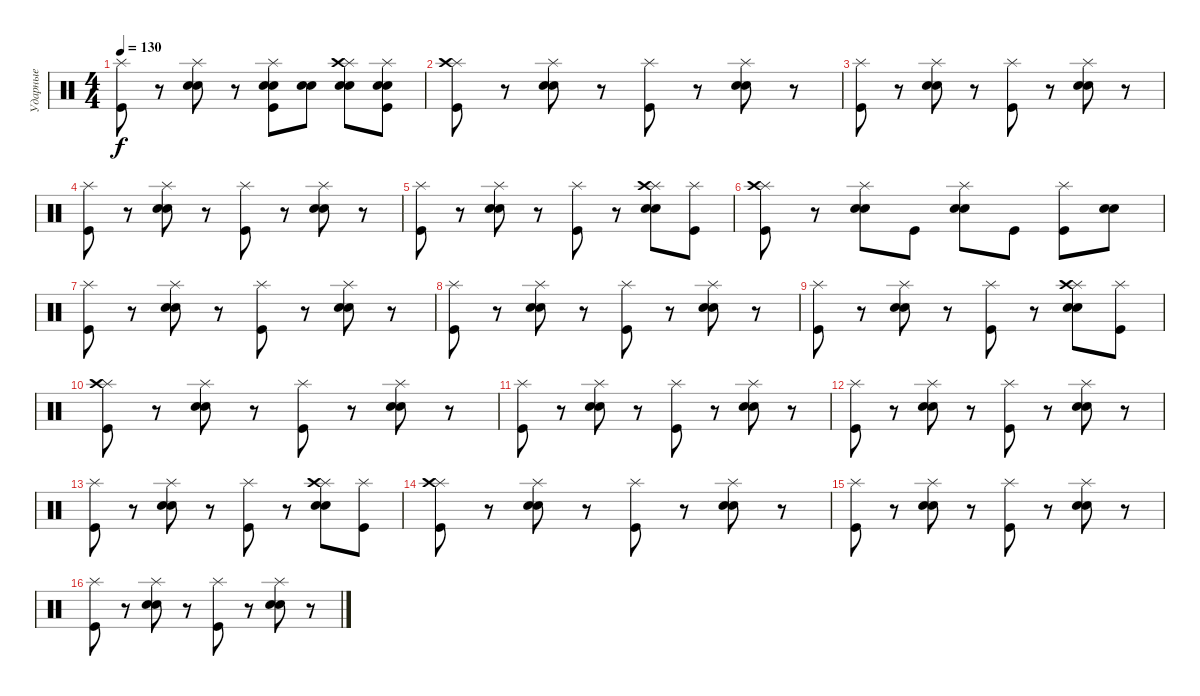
\track ("Ударные" "Ударные") {instrument percussion}
\staff {score}
\articulation defaults
\ts (4 4)
\tempo 130
\clef neutral
\ks c
("Splash (hit)" "Kick (hit)").8{dy f} r.8 ("Splash (hit)" "Electric Snare (hit)" "Electric Snare (hit)").8 r.8 ("Splash (hit)" "Electric Snare (hit)" "Electric Snare (hit)" "Kick (hit)").8 ("Snare (hit) 2" "Snare (hit) 2").8 ("Splash (hit)" "Crash high (hit)" "Electric Snare (hit)" "Electric Snare (hit)").8 ("Splash (hit)" "Snare (hit) 2" "Snare (hit) 2" "Kick (hit)").8 |
("Splash (hit)" "Crash high (hit)" "Kick (hit)").8 r.8 ("Splash (hit)" "Electric Snare (hit)" "Electric Snare (hit)").8 r.8 ("Splash (hit)" "Kick (hit)").8 r.8 ("Splash (hit)" "Electric Snare (hit)" "Electric Snare (hit)").8 r.8 |
("Splash (hit)" "Kick (hit)").8 r.8 ("Splash (hit)" "Electric Snare (hit)" "Electric Snare (hit)").8 r.8 ("Splash (hit)" "Kick (hit)").8 r.8 ("Splash (hit)" "Electric Snare (hit)" "Electric Snare (hit)").8 r.8 |
("Splash (hit)" "Kick (hit)").8 r.8 ("Splash (hit)" "Electric Snare (hit)" "Electric Snare (hit)").8 r.8 ("Splash (hit)" "Kick (hit)").8 r.8 ("Splash (hit)" "Electric Snare (hit)" "Electric Snare (hit)").8 r.8 |
("Splash (hit)" "Kick (hit)").8 r.8 ("Splash (hit)" "Electric Snare (hit)" "Electric Snare (hit)").8 r.8 ("Splash (hit)" "Kick (hit)").8 r.8 ("Splash (hit)" "Crash high (hit)" "Electric Snare (hit)" "Electric Snare (hit)").8 ("Splash (hit)" "Kick (hit)").8 |
("Splash (hit)" "Crash high (hit)" "Kick (hit)").8 r.8 ("Splash (hit)" "Electric Snare (hit)" "Electric Snare (hit)").8 "Kick (hit)".8 ("Splash (hit)" "Electric Snare (hit)" "Electric Snare (hit)").8 "Kick (hit)".8 ("Splash (hit)" "Kick (hit)").8 ("Electric Snare (hit)" "Electric Snare (hit)").8 |
("Splash (hit)" "Kick (hit)").8 r.8 ("Splash (hit)" "Electric Snare (hit)" "Electric Snare (hit)").8 r.8 ("Splash (hit)" "Kick (hit)").8 r.8 ("Splash (hit)" "Electric Snare (hit)" "Electric Snare (hit)").8 r.8 |
("Splash (hit)" "Kick (hit)").8 r.8 ("Splash (hit)" "Electric Snare (hit)" "Electric Snare (hit)").8 r.8 ("Splash (hit)" "Kick (hit)").8 r.8 ("Splash (hit)" "Electric Snare (hit)" "Electric Snare (hit)").8 r.8 |
("Splash (hit)" "Kick (hit)").8 r.8 ("Splash (hit)" "Electric Snare (hit)" "Electric Snare (hit)").8 r.8 ("Splash (hit)" "Kick (hit)").8 r.8 ("Splash (hit)" "Crash high (hit)" "Electric Snare (hit)" "Electric Snare (hit)").8 ("Splash (hit)" "Kick (hit)").8 |
("Splash (hit)" "Crash high (hit)" "Kick (hit)").8 r.8 ("Splash (hit)" "Electric Snare (hit)" "Electric Snare (hit)").8 r.8 ("Splash (hit)" "Kick (hit)").8 r.8 ("Splash (hit)" "Electric Snare (hit)" "Electric Snare (hit)").8 r.8 |
("Splash (hit)" "Kick (hit)").8 r.8 ("Splash (hit)" "Electric Snare (hit)" "Electric Snare (hit)").8 r.8 ("Splash (hit)" "Kick (hit)").8 r.8 ("Splash (hit)" "Electric Snare (hit)" "Electric Snare (hit)").8 r.8 |
("Splash (hit)" "Kick (hit)").8 r.8 ("Splash (hit)" "Electric Snare (hit)" "Electric Snare (hit)").8 r.8 ("Splash (hit)" "Kick (hit)").8 r.8 ("Splash (hit)" "Electric Snare (hit)" "Electric Snare (hit)").8 r.8 |
("Splash (hit)" "Kick (hit)").8 r.8 ("Splash (hit)" "Electric Snare (hit)" "Electric Snare (hit)").8 r.8 ("Splash (hit)" "Kick (hit)").8 r.8 ("Splash (hit)" "Crash high (hit)" "Electric Snare (hit)" "Electric Snare (hit)").8 ("Splash (hit)" "Kick (hit)").8 |
("Splash (hit)" "Crash high (hit)" "Kick (hit)").8 r.8 ("Splash (hit)" "Electric Snare (hit)" "Electric Snare (hit)").8 r.8 ("Splash (hit)" "Kick (hit)").8 r.8 ("Splash (hit)" "Electric Snare (hit)" "Electric Snare (hit)").8 r.8 |
("Splash (hit)" "Kick (hit)").8 r.8 ("Splash (hit)" "Electric Snare (hit)" "Electric Snare (hit)").8 r.8 ("Splash (hit)" "Kick (hit)").8 r.8 ("Splash (hit)" "Electric Snare (hit)" "Electric Snare (hit)").8 r.8 |
("Splash (hit)" "Kick (hit)").8 r.8 ("Splash (hit)" "Electric Snare (hit)" "Electric Snare (hit)").8 r.8 ("Splash (hit)" "Kick (hit)").8 r.8 ("Splash (hit)" "Electric Snare (hit)" "Electric Snare (hit)").8 r.8
